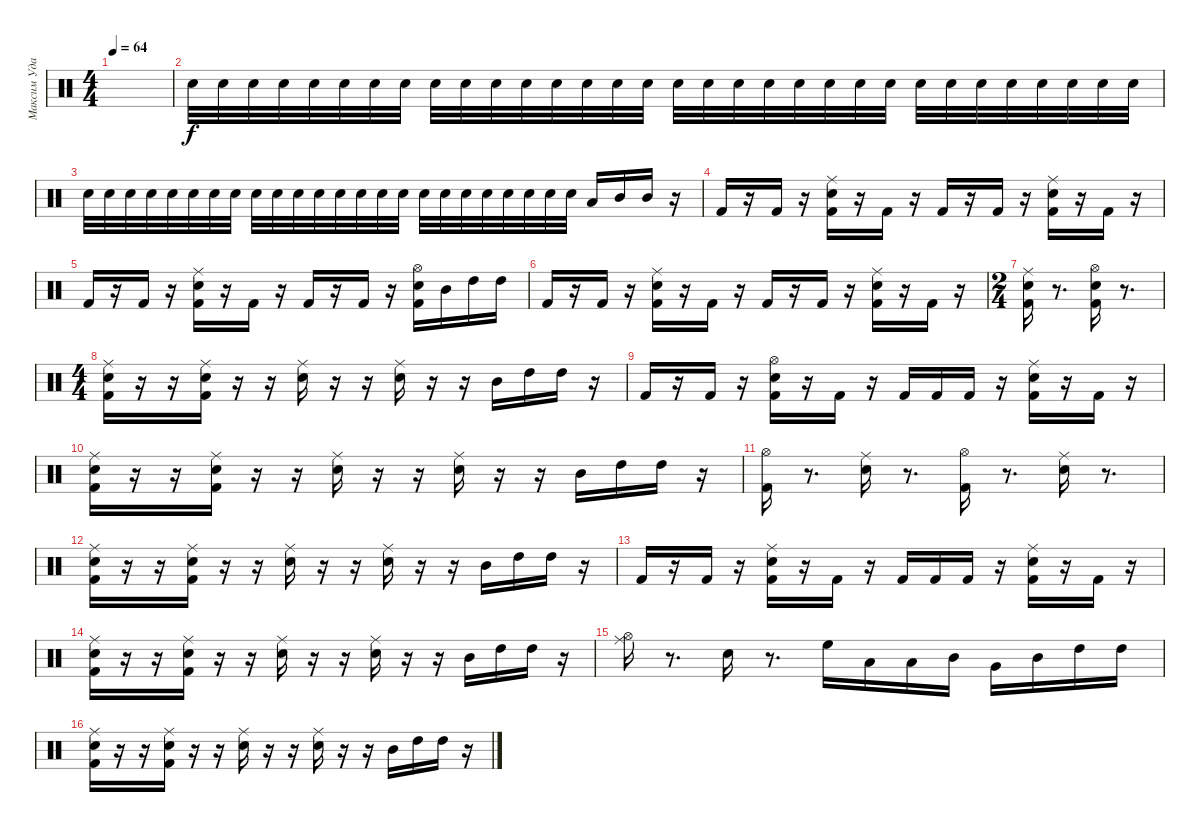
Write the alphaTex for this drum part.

\track ("Максим Удалов" "Максим Уда") {instrument percussion}
\staff {score}
\articulation defaults
\ts (4 4)
\tempo 64
\clef neutral
\ks c
|
"Electric Snare (hit)".32{volume 8} "Electric Snare (hit)".32 "Electric Snare (hit)".32 "Electric Snare (hit)".32 "Electric Snare (hit)".32 "Electric Snare (hit)".32 "Electric Snare (hit)".32 "Electric Snare (hit)".32 "Electric Snare (hit)".32 "Electric Snare (hit)".32 "Electric Snare (hit)".32 "Electric Snare (hit)".32 "Electric Snare (hit)".32 "Electric Snare (hit)".32 "Electric Snare (hit)".32 "Electric Snare (hit)".32 "Electric Snare (hit)".32 "Electric Snare (hit)".32 "Electric Snare (hit)".32 "Electric Snare (hit)".32 "Electric Snare (hit)".32 "Electric Snare (hit)".32 "Electric Snare (hit)".32 "Electric Snare (hit)".32 "Electric Snare (hit)".32 "Electric Snare (hit)".32 "Electric Snare (hit)".32 "Electric Snare (hit)".32 "Electric Snare (hit)".32 "Electric Snare (hit)".32 "Electric Snare (hit)".32 "Electric Snare (hit)".32 |
"Electric Snare (hit)".32{volume 16} "Electric Snare (hit)".32 "Electric Snare (hit)".32 "Electric Snare (hit)".32 "Electric Snare (hit)".32 "Electric Snare (hit)".32 "Electric Snare (hit)".32 "Electric Snare (hit)".32 "Electric Snare (hit)".32 "Electric Snare (hit)".32 "Electric Snare (hit)".32 "Electric Snare (hit)".32 "Electric Snare (hit)".32 "Electric Snare (hit)".32 "Electric Snare (hit)".32 "Electric Snare (hit)".32 "Electric Snare (hit)".32 "Electric Snare (hit)".32 "Electric Snare (hit)".32 "Electric Snare (hit)".32 "Electric Snare (hit)".32 "Electric Snare (hit)".32 "Electric Snare (hit)".32 "Electric Snare (hit)".32 "Low Tom (hit)".16 "Mid Tom (hit)".16 "Mid Tom (hit)".16 r.16 |
"Kick (hit) 2".16 r.16 "Kick (hit) 2".16 r.16 ("Ride (middle)" "Electric Snare (hit)" "Kick (hit) 2").16 r.16 "Kick (hit) 2".16 r.16 "Kick (hit) 2".16 r.16 "Kick (hit) 2".16 r.16 ("Ride (middle)" "Electric Snare (hit)" "Kick (hit) 2").16 r.16 "Kick (hit) 2".16 r.16 |
"Kick (hit) 2".16 r.16 "Kick (hit) 2".16 r.16 ("Kick (hit) 2" "Electric Snare (hit)" "Ride (middle)").16 r.16 "Kick (hit) 2".16 r.16 "Kick (hit) 2".16 r.16 "Kick (hit) 2".16 r.16 ("Kick (hit) 2" "Electric Snare (hit)" "Hi-Hat (open)").16 "Mid Tom (hit)".16 "High Tom (hit)".16 "High Tom (hit)".16 |
"Kick (hit) 2".16 r.16 "Kick (hit) 2".16 r.16 ("Electric Snare (hit)" "Ride (middle)" "Kick (hit) 2").16 r.16 "Kick (hit) 2".16 r.16 "Kick (hit) 2".16 r.16 "Kick (hit) 2".16 r.16 ("Kick (hit) 2" "Electric Snare (hit)" "Ride (middle)").16 r.16 "Kick (hit) 2".16 r.16 |
\ts (2 4)
("Ride (middle)" "Electric Snare (hit)" "Kick (hit) 2").16 r.8{d} ("Electric Snare (hit)" "Hi-Hat (open)" "Kick (hit) 2").16 r.8{d} |
\ts (4 4)
("Electric Snare (hit)" "Kick (hit) 2" "Ride (middle)").16 r.16 r.16 ("Electric Snare (hit)" "Kick (hit) 2" "Ride (middle)").16 r.16 r.16 ("Electric Snare (hit)" "Ride (middle)").16 r.16 r.16 ("Electric Snare (hit)" "Ride (middle)").16 r.16 r.16 "Mid Tom (hit)".16 "High Tom (hit)".16 "High Tom (hit)".16 r.16 |
"Kick (hit) 2".16 r.16 "Kick (hit) 2".16 r.16 ("Electric Snare (hit)" "Hi-Hat (open)" "Kick (hit) 2").16 r.16 "Kick (hit) 2".16 r.16 "Kick (hit) 2".16 "Kick (hit) 2".16 "Kick (hit) 2".16 r.16 ("Kick (hit) 2" "Electric Snare (hit)" "Ride (middle)").16 r.16 "Kick (hit) 2".16 r.16 |
("Electric Snare (hit)" "Kick (hit) 2" "Ride (middle)").16 r.16 r.16 ("Electric Snare (hit)" "Kick (hit) 2" "Ride (middle)").16 r.16 r.16 ("Electric Snare (hit)" "Ride (middle)").16 r.16 r.16 ("Electric Snare (hit)" "Ride (middle)").16 r.16 r.16 "Mid Tom (hit)".16 "High Tom (hit)".16 "High Tom (hit)".16 r.16 |
("Hi-Hat (open)" "Kick (hit) 2").16 r.8{d} ("Electric Snare (hit)" "Ride (middle)").16 r.8{d} ("Kick (hit) 2" "Hi-Hat (open)").16 r.8{d} ("Electric Snare (hit)" "Ride (middle)").16 r.8{d} |
("Electric Snare (hit)" "Kick (hit) 2" "Ride (middle)").16 r.16 r.16 ("Electric Snare (hit)" "Kick (hit) 2" "Ride (middle)").16 r.16 r.16 ("Electric Snare (hit)" "Ride (middle)").16 r.16 r.16 ("Electric Snare (hit)" "Ride (middle)").16 r.16 r.16 "Mid Tom (hit)".16 "High Tom (hit)".16 "High Tom (hit)".16 r.16 |
"Kick (hit) 2".16 r.16 "Kick (hit) 2".16 r.16 ("Electric Snare (hit)" "Ride (middle)" "Kick (hit) 2").16 r.16 "Kick (hit) 2".16 r.16 "Kick (hit) 2".16 "Kick (hit) 2".16 "Kick (hit) 2".16 r.16 ("Kick (hit) 2" "Electric Snare (hit)" "Ride (middle)").16 r.16 "Kick (hit) 2".16 r.16 |
("Electric Snare (hit)" "Kick (hit) 2" "Ride (middle)").16 r.16 r.16 ("Electric Snare (hit)" "Kick (hit) 2" "Ride (middle)").16 r.16 r.16 ("Electric Snare (hit)" "Ride (middle)").16 r.16 r.16 ("Electric Snare (hit)" "Ride (middle)").16 r.16 r.16 "Mid Tom (hit)".16 "High Tom (hit)".16 "High Tom (hit)".16 r.16 |
("Ride (middle)" "Hi-Hat (open)").16 r.8{d} "Electric Snare (hit)".16 r.8{d} "High Floor Tom (hit)".16 "Low Tom (hit)".16 "Low Tom (hit)".16 "Mid Tom (hit)".16 "Very Low Tom (hit)".16 "Mid Tom (hit)".16 "High Tom (hit)".16 "High Tom (hit)".16 |
("Electric Snare (hit)" "Kick (hit) 2" "Ride (middle)").16 r.16 r.16 ("Electric Snare (hit)" "Kick (hit) 2" "Ride (middle)").16 r.16 r.16 ("Electric Snare (hit)" "Ride (middle)").16 r.16 r.16 ("Electric Snare (hit)" "Ride (middle)").16 r.16 r.16 "Mid Tom (hit)".16 "High Tom (hit)".16 "High Tom (hit)".16 r.16
